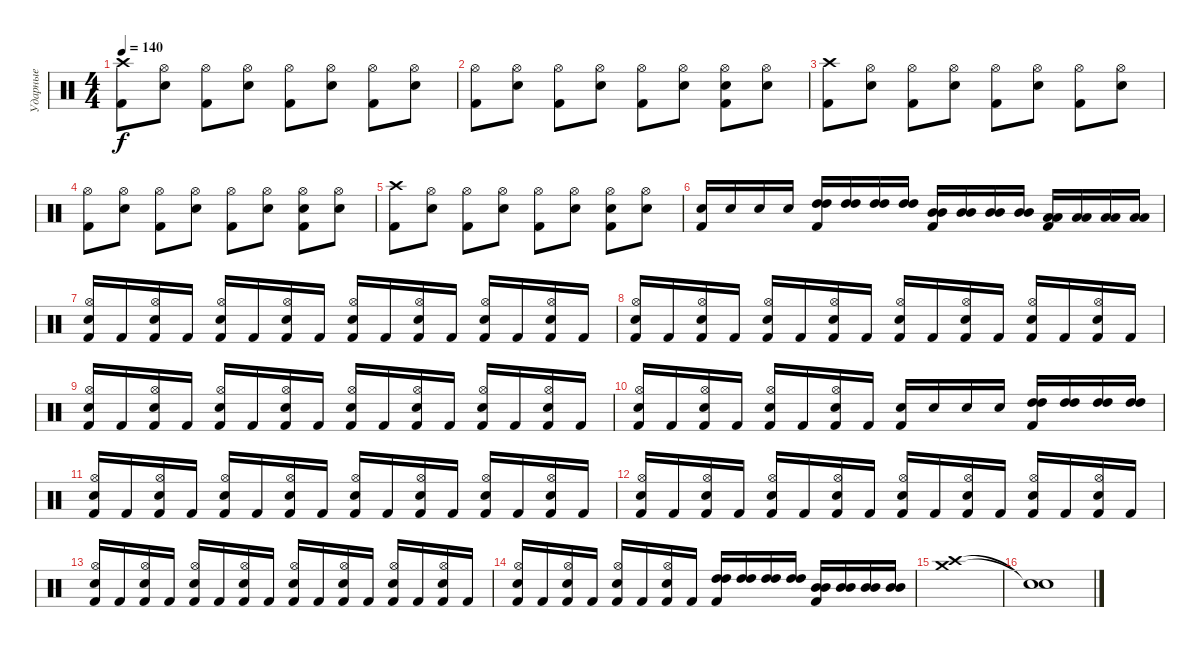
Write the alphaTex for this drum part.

\track ("Ударные" "Ударные") {instrument percussion}
\staff {score}
\articulation defaults
\ts (4 4)
\tempo 140
\clef neutral
\ks c
("Crash high (hit)" "Kick (hit) 2").8{dy f} ("Hi-Hat (open)" "Electric Snare (hit)").8 ("Hi-Hat (open)" "Kick (hit) 2").8 ("Hi-Hat (open)" "Electric Snare (hit)").8 ("Hi-Hat (open)" "Kick (hit) 2").8 ("Hi-Hat (open)" "Electric Snare (hit)").8 ("Hi-Hat (open)" "Kick (hit) 2").8 ("Hi-Hat (open)" "Electric Snare (hit)").8 |
("Hi-Hat (open)" "Kick (hit) 2").8 ("Hi-Hat (open)" "Electric Snare (hit)").8 ("Hi-Hat (open)" "Kick (hit) 2").8 ("Hi-Hat (open)" "Electric Snare (hit)").8 ("Hi-Hat (open)" "Kick (hit) 2").8 ("Hi-Hat (open)" "Electric Snare (hit)").8 ("Hi-Hat (open)" "Electric Snare (hit)" "Kick (hit) 2").8 ("Hi-Hat (open)" "Electric Snare (hit)").8 |
("Crash high (hit)" "Kick (hit) 2").8 ("Hi-Hat (open)" "Electric Snare (hit)").8 ("Hi-Hat (open)" "Kick (hit) 2").8 ("Hi-Hat (open)" "Electric Snare (hit)").8 ("Hi-Hat (open)" "Kick (hit) 2").8 ("Hi-Hat (open)" "Electric Snare (hit)").8 ("Hi-Hat (open)" "Kick (hit) 2").8 ("Hi-Hat (open)" "Electric Snare (hit)").8 |
("Hi-Hat (open)" "Kick (hit) 2").8 ("Hi-Hat (open)" "Electric Snare (hit)").8 ("Hi-Hat (open)" "Kick (hit) 2").8 ("Hi-Hat (open)" "Electric Snare (hit)").8 ("Hi-Hat (open)" "Kick (hit) 2").8 ("Hi-Hat (open)" "Electric Snare (hit)").8 ("Hi-Hat (open)" "Electric Snare (hit)" "Kick (hit) 2").8 ("Hi-Hat (open)" "Electric Snare (hit)").8 |
("Crash high (hit)" "Kick (hit) 2").8 ("Hi-Hat (open)" "Electric Snare (hit)").8 ("Hi-Hat (open)" "Kick (hit) 2").8 ("Hi-Hat (open)" "Electric Snare (hit)").8 ("Hi-Hat (open)" "Kick (hit) 2").8 ("Hi-Hat (open)" "Electric Snare (hit)").8 ("Hi-Hat (open)" "Electric Snare (hit)" "Kick (hit) 2").8 ("Hi-Hat (open)" "Electric Snare (hit)").8 |
("Electric Snare (hit)" "Kick (hit) 2").16 "Electric Snare (hit)".16 "Electric Snare (hit)".16 "Electric Snare (hit)".16 ("High Tom (hit)" "High Tom (hit)" "Kick (hit) 2").16 ("High Tom (hit)" "High Tom (hit)").16 ("High Tom (hit)" "High Tom (hit)").16 ("High Tom (hit)" "High Tom (hit)").16 ("Mid Tom (hit)" "Mid Tom (hit)" "Kick (hit) 2").16 ("Mid Tom (hit)" "Mid Tom (hit)").16 ("Mid Tom (hit)" "Mid Tom (hit)").16 ("Mid Tom (hit)" "Mid Tom (hit)").16 ("Low Tom (hit)" "Low Tom (hit)" "Kick (hit) 2").16 ("Low Tom (hit)" "Low Tom (hit)").16 ("Low Tom (hit)" "Low Tom (hit)").16 ("Low Tom (hit)" "Low Tom (hit)").16 |
("Hi-Hat (open)" "Electric Snare (hit)" "Kick (hit) 2").16 "Kick (hit) 2".16 ("Hi-Hat (open)" "Electric Snare (hit)" "Kick (hit) 2").16 "Kick (hit) 2".16 ("Hi-Hat (open)" "Electric Snare (hit)" "Kick (hit) 2").16 "Kick (hit) 2".16 ("Hi-Hat (open)" "Electric Snare (hit)" "Kick (hit) 2").16 "Kick (hit) 2".16 ("Hi-Hat (open)" "Electric Snare (hit)" "Kick (hit) 2").16 "Kick (hit) 2".16 ("Hi-Hat (open)" "Electric Snare (hit)" "Kick (hit) 2").16 "Kick (hit) 2".16 ("Hi-Hat (open)" "Electric Snare (hit)" "Kick (hit) 2").16 "Kick (hit) 2".16 ("Hi-Hat (open)" "Electric Snare (hit)" "Kick (hit) 2").16 "Kick (hit) 2".16 |
("Hi-Hat (open)" "Electric Snare (hit)" "Kick (hit) 2").16 "Kick (hit) 2".16 ("Hi-Hat (open)" "Electric Snare (hit)" "Kick (hit) 2").16 "Kick (hit) 2".16 ("Hi-Hat (open)" "Electric Snare (hit)" "Kick (hit) 2").16 "Kick (hit) 2".16 ("Hi-Hat (open)" "Electric Snare (hit)" "Kick (hit) 2").16 "Kick (hit) 2".16 ("Hi-Hat (open)" "Electric Snare (hit)" "Kick (hit) 2").16 "Kick (hit) 2".16 ("Hi-Hat (open)" "Electric Snare (hit)" "Kick (hit) 2").16 "Kick (hit) 2".16 ("Hi-Hat (open)" "Electric Snare (hit)" "Kick (hit) 2").16 "Kick (hit) 2".16 ("Hi-Hat (open)" "Electric Snare (hit)" "Kick (hit) 2").16 "Kick (hit) 2".16 |
("Hi-Hat (open)" "Electric Snare (hit)" "Kick (hit) 2").16 "Kick (hit) 2".16 ("Hi-Hat (open)" "Electric Snare (hit)" "Kick (hit) 2").16 "Kick (hit) 2".16 ("Hi-Hat (open)" "Electric Snare (hit)" "Kick (hit) 2").16 "Kick (hit) 2".16 ("Hi-Hat (open)" "Electric Snare (hit)" "Kick (hit) 2").16 "Kick (hit) 2".16 ("Hi-Hat (open)" "Electric Snare (hit)" "Kick (hit) 2").16 "Kick (hit) 2".16 ("Hi-Hat (open)" "Electric Snare (hit)" "Kick (hit) 2").16 "Kick (hit) 2".16 ("Hi-Hat (open)" "Electric Snare (hit)" "Kick (hit) 2").16 "Kick (hit) 2".16 ("Hi-Hat (open)" "Electric Snare (hit)" "Kick (hit) 2").16 "Kick (hit) 2".16 |
("Hi-Hat (open)" "Electric Snare (hit)" "Kick (hit) 2").16 "Kick (hit) 2".16 ("Hi-Hat (open)" "Electric Snare (hit)" "Kick (hit) 2").16 "Kick (hit) 2".16 ("Hi-Hat (open)" "Electric Snare (hit)" "Kick (hit) 2").16 "Kick (hit) 2".16 ("Hi-Hat (open)" "Electric Snare (hit)" "Kick (hit) 2").16 "Kick (hit) 2".16 ("Electric Snare (hit)" "Kick (hit) 2").16 "Electric Snare (hit)".16 "Electric Snare (hit)".16 "Electric Snare (hit)".16 ("High Tom (hit)" "High Tom (hit)" "Kick (hit) 2").16 ("High Tom (hit)" "High Tom (hit)").16 ("High Tom (hit)" "High Tom (hit)").16 ("High Tom (hit)" "High Tom (hit)").16 |
("Hi-Hat (open)" "Electric Snare (hit)" "Kick (hit) 2").16 "Kick (hit) 2".16 ("Hi-Hat (open)" "Electric Snare (hit)" "Kick (hit) 2").16 "Kick (hit) 2".16 ("Hi-Hat (open)" "Electric Snare (hit)" "Kick (hit) 2").16 "Kick (hit) 2".16 ("Hi-Hat (open)" "Electric Snare (hit)" "Kick (hit) 2").16 "Kick (hit) 2".16 ("Hi-Hat (open)" "Electric Snare (hit)" "Kick (hit) 2").16 "Kick (hit) 2".16 ("Hi-Hat (open)" "Electric Snare (hit)" "Kick (hit) 2").16 "Kick (hit) 2".16 ("Hi-Hat (open)" "Electric Snare (hit)" "Kick (hit) 2").16 "Kick (hit) 2".16 ("Hi-Hat (open)" "Electric Snare (hit)" "Kick (hit) 2").16 "Kick (hit) 2".16 |
("Hi-Hat (open)" "Electric Snare (hit)" "Kick (hit) 2").16 "Kick (hit) 2".16 ("Hi-Hat (open)" "Electric Snare (hit)" "Kick (hit) 2").16 "Kick (hit) 2".16 ("Hi-Hat (open)" "Electric Snare (hit)" "Kick (hit) 2").16 "Kick (hit) 2".16 ("Hi-Hat (open)" "Electric Snare (hit)" "Kick (hit) 2").16 "Kick (hit) 2".16 ("Hi-Hat (open)" "Electric Snare (hit)" "Kick (hit) 2").16 "Kick (hit) 2".16 ("Hi-Hat (open)" "Electric Snare (hit)" "Kick (hit) 2").16 "Kick (hit) 2".16 ("Hi-Hat (open)" "Electric Snare (hit)" "Kick (hit) 2").16 "Kick (hit) 2".16 ("Hi-Hat (open)" "Electric Snare (hit)" "Kick (hit) 2").16 "Kick (hit) 2".16 |
("Hi-Hat (open)" "Electric Snare (hit)" "Kick (hit) 2").16 "Kick (hit) 2".16 ("Hi-Hat (open)" "Electric Snare (hit)" "Kick (hit) 2").16 "Kick (hit) 2".16 ("Hi-Hat (open)" "Electric Snare (hit)" "Kick (hit) 2").16 "Kick (hit) 2".16 ("Hi-Hat (open)" "Electric Snare (hit)" "Kick (hit) 2").16 "Kick (hit) 2".16 ("Hi-Hat (open)" "Electric Snare (hit)" "Kick (hit) 2").16 "Kick (hit) 2".16 ("Hi-Hat (open)" "Electric Snare (hit)" "Kick (hit) 2").16 "Kick (hit) 2".16 ("Hi-Hat (open)" "Electric Snare (hit)" "Kick (hit) 2").16 "Kick (hit) 2".16 ("Hi-Hat (open)" "Electric Snare (hit)" "Kick (hit) 2").16 "Kick (hit) 2".16 |
("Hi-Hat (open)" "Electric Snare (hit)" "Kick (hit) 2").16 "Kick (hit) 2".16 ("Hi-Hat (open)" "Electric Snare (hit)" "Kick (hit) 2").16 "Kick (hit) 2".16 ("Hi-Hat (open)" "Electric Snare (hit)" "Kick (hit) 2").16 "Kick (hit) 2".16 ("Hi-Hat (open)" "Electric Snare (hit)" "Kick (hit) 2").16 "Kick (hit) 2".16 ("High Tom (hit)" "High Tom (hit)" "Kick (hit) 2").16 ("High Tom (hit)" "High Tom (hit)").16 ("High Tom (hit)" "High Tom (hit)").16 ("High Tom (hit)" "High Tom (hit)").16 ("Mid Tom (hit)" "Mid Tom (hit)" "Kick (hit) 2").16 ("Mid Tom (hit)" "Mid Tom (hit)").16 ("Mid Tom (hit)" "Mid Tom (hit)").16 ("Mid Tom (hit)" "Mid Tom (hit)").16 |
("Crash medium (hit)" "Crash high (hit)").1 |
("Snare (hit)"{t} "Snare (hit)"{t}).1
